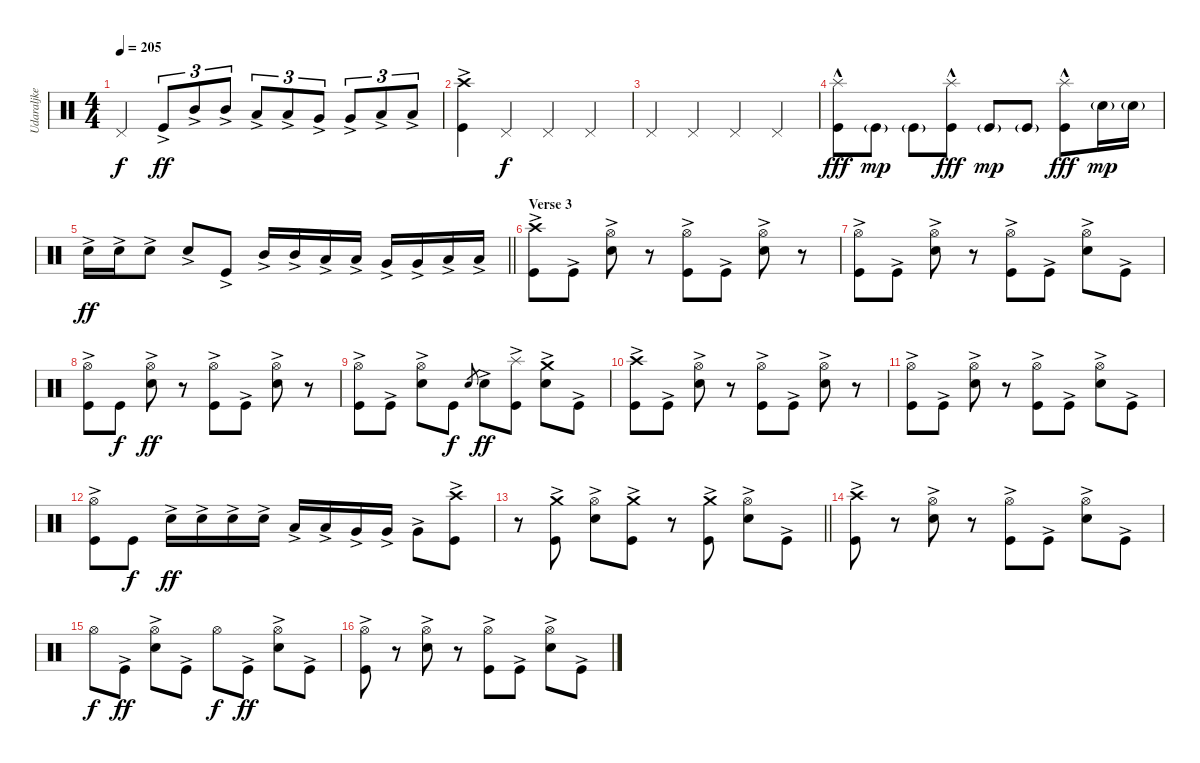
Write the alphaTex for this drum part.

\track ("Udaraljke" "Udaraljke") {instrument percussion}
\staff {score}
\articulation defaults
\ts (4 4)
\tempo 205
\clef neutral
\ks c "Pedal Hi-Hat (hit)".4{dy f} "Kick (hit)"{ac}.8{tu (3 2) dy ff} "Mid Tom (hit)"{ac}.8{tu (3 2)} "Mid Tom (hit)"{ac}.8{tu (3 2)} "Low Tom (hit)"{ac}.8{tu (3 2)} "Low Tom (hit)"{ac}.8{tu (3 2)} "Very Low Tom (hit)"{ac}.8{tu (3 2)} "Very Low Tom (hit)"{ac}.8{tu (3 2)} "Low Floor Tom (hit)"{ac}.8{tu (3 2)} "Low Floor Tom (hit)"{ac}.8{tu (3 2)}
|
("Kick (hit)"{ac} "Crash high (hit)").4 "Pedal Hi-Hat (hit)".4{dy f} "Pedal Hi-Hat (hit)".4 "Pedal Hi-Hat (hit)".4 |
"Pedal Hi-Hat (hit)".4 "Pedal Hi-Hat (hit)".4 "Pedal Hi-Hat (hit)".4 "Pedal Hi-Hat (hit)".4 |
("Kick (hit)" "Splash (hit)"{hac}).8{dy fff} "Kick (hit)"{g}.8{dy mp} "Kick (hit)"{g}.8 ("Kick (hit)" "Splash (hit)"{hac}).8{dy fff} "Kick (hit)"{g}.8{dy mp} "Kick (hit)"{g}.8 ("Kick (hit)" "Splash (hit)"{hac}).8{dy fff} "Snare (hit) 2"{g}.16{dy mp} "Snare (hit) 2"{g}.16 |
\barLineRight lightlight "Snare (hit) 2"{ac}.16{dy ff} "Snare (hit) 2"{ac}.16 "Snare (hit) 2"{ac}.8 "Snare (hit) 2"{ac}.8 "Kick (hit)"{ac}.8 "Mid Tom (hit)"{ac}.16 "Mid Tom (hit)"{ac}.16 "Low Tom (hit)"{ac}.16 "Low Tom (hit)"{ac}.16 "Very Low Tom (hit)"{ac}.16 "Very Low Tom (hit)"{ac}.16 "Low Floor Tom (hit)"{ac}.16 "Low Floor Tom (hit)"{ac}.16
|
\section ("" "Verse 3")
("Kick (hit)"{ac} "Crash high (hit)").8 "Kick (hit)"{ac}.8 ("Hi-Hat (open)" "Snare (hit) 2"{ac}).8 r.8 ("Hi-Hat (open)" "Kick (hit)"{ac}).8 "Kick (hit)"{ac}.8 ("Hi-Hat (open)" "Snare (hit) 2"{ac}).8 r.8 |
("Hi-Hat (open)" "Kick (hit)"{ac}).8 "Kick (hit)"{ac}.8 ("Hi-Hat (open)" "Snare (hit) 2"{ac}).8 r.8 ("Hi-Hat (open)" "Kick (hit)"{ac}).8 "Kick (hit)"{ac}.8 ("Hi-Hat (open)" "Snare (hit) 2"{ac}).8 "Kick (hit)"{ac}.8 |
("Kick (hit)"{ac} "Hi-Hat (open)").8 "Kick (hit)".8{dy f} ("Hi-Hat (open)" "Snare (hit) 2"{ac}).8{dy ff} r.8 ("Hi-Hat (open)" "Kick (hit)"{ac}).8 "Kick (hit)"{ac}.8 ("Hi-Hat (open)" "Snare (hit) 2"{ac}).8 r.8 |
("Hi-Hat (open)" "Kick (hit)"{ac}).8 "Kick (hit)"{ac}.8 ("Hi-Hat (open)" "Snare (hit) 2"{ac}).8 "Kick (hit)".8{dy f} "Snare (hit) 2".8{gr} "Snare (hit) 2"{ac}.8{dy ff} ("Kick (hit)" "Splash (hit)"{ac}).8 ("Crash medium (hit)" "Snare (hit) 2"{ac}).8 "Kick (hit)"{ac}.8 |
("Kick (hit)"{ac} "Crash high (hit)").8 "Kick (hit)"{ac}.8 ("Hi-Hat (open)" "Snare (hit) 2"{ac}).8 r.8 ("Hi-Hat (open)" "Kick (hit)"{ac}).8 "Kick (hit)"{ac}.8 ("Hi-Hat (open)" "Snare (hit) 2"{ac}).8 r.8 |
("Hi-Hat (open)" "Kick (hit)"{ac}).8 "Kick (hit)"{ac}.8 ("Hi-Hat (open)" "Snare (hit) 2"{ac}).8 r.8 ("Hi-Hat (open)" "Kick (hit)"{ac}).8 "Kick (hit)"{ac}.8 ("Hi-Hat (open)" "Snare (hit) 2"{ac}).8 "Kick (hit)"{ac}.8 |
("Kick (hit)"{ac} "Hi-Hat (open)").8 "Kick (hit)".8{dy f} "Snare (hit) 2"{ac}.16{dy ff} "Snare (hit) 2"{ac}.16 "Snare (hit) 2"{ac}.16 "Snare (hit) 2"{ac}.16 "Low Tom (hit)"{ac}.16 "Low Tom (hit)"{ac}.16 "Very Low Tom (hit)"{ac}.16 "Very Low Tom (hit)"{ac}.16 "Very Low Tom (hit)"{ac}.8 ("Kick (hit)"{ac} "Crash high (hit)").8 |
\barLineRight lightlight
r.8 ("Kick (hit)"{ac} "Crash medium (hit)").8 ("Snare (hit) 2"{ac} "Hi-Hat (open)").8 ("Kick (hit)"{ac} "Crash medium (hit)").8 r.8 ("Kick (hit)"{ac} "Crash medium (hit)").8 ("Snare (hit) 2"{ac} "Hi-Hat (open)").8 "Kick (hit)"{ac}.8 |
\section ("" "")
("Kick (hit)"{ac} "Crash high (hit)").8 r.8 ("Hi-Hat (open)" "Snare (hit) 2"{ac}).8 r.8 ("Hi-Hat (open)" "Kick (hit)"{ac}).8 "Kick (hit)"{ac}.8 ("Snare (hit) 2"{ac} "Hi-Hat (open)").8 "Kick (hit)"{ac}.8 |
"Hi-Hat (open)".8{dy f} "Kick (hit)"{ac}.8{dy ff} ("Snare (hit) 2"{ac} "Hi-Hat (open)").8 "Kick (hit)"{ac}.8 "Hi-Hat (open)".8{dy f} "Kick (hit)"{ac}.8{dy ff} ("Hi-Hat (open)" "Snare (hit) 2"{ac}).8 "Kick (hit)"{ac}.8 |
("Kick (hit)"{ac} "Hi-Hat (open)").8 r.8 ("Hi-Hat (open)" "Snare (hit) 2"{ac}).8 r.8 ("Hi-Hat (open)" "Kick (hit)"{ac}).8 "Kick (hit)"{ac}.8 ("Snare (hit) 2"{ac} "Hi-Hat (open)").8 "Kick (hit)"{ac}.8
